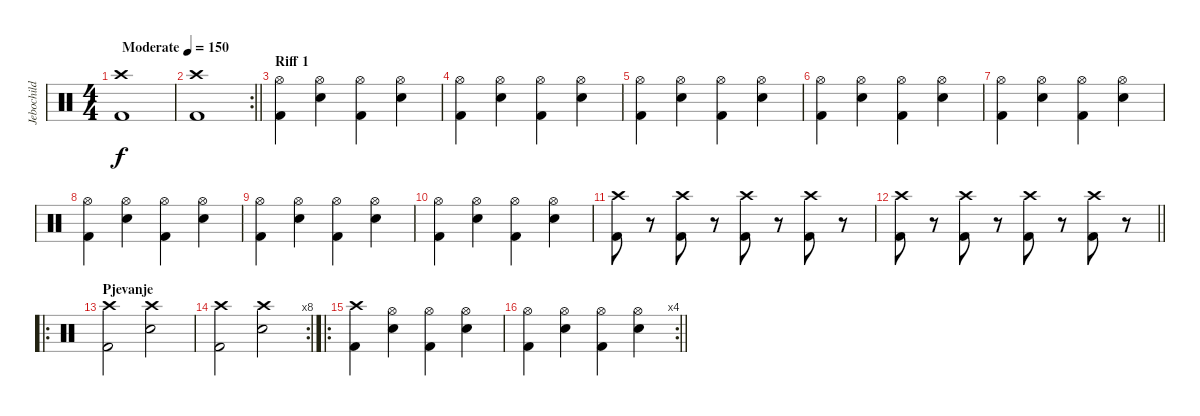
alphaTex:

\track ("Jebochild - Dragan" "Jebochild ") {instrument percussion}
\staff {score}
\articulation defaults
\ts (4 4)
\tempo (150 "Moderate")
\clef neutral
\ks c
("Crash high (hit)" "Kick (hit) 2").1{dy f} |
\rc 2
\barLineRight lightlight
("Crash high (hit)" "Kick (hit) 2").1 |
\section ("" "Riff 1")
("Hi-Hat (open)" "Kick (hit) 2").4 ("Hi-Hat (open)" "Electric Snare (hit)").4 ("Hi-Hat (open)" "Kick (hit) 2").4 ("Hi-Hat (open)" "Electric Snare (hit)").4 |
("Hi-Hat (open)" "Kick (hit) 2").4 ("Hi-Hat (open)" "Electric Snare (hit)").4 ("Hi-Hat (open)" "Kick (hit) 2").4 ("Hi-Hat (open)" "Electric Snare (hit)").4 |
("Hi-Hat (open)" "Kick (hit) 2").4 ("Hi-Hat (open)" "Electric Snare (hit)").4 ("Hi-Hat (open)" "Kick (hit) 2").4 ("Hi-Hat (open)" "Electric Snare (hit)").4 |
("Hi-Hat (open)" "Kick (hit) 2").4 ("Hi-Hat (open)" "Electric Snare (hit)").4 ("Hi-Hat (open)" "Kick (hit) 2").4 ("Hi-Hat (open)" "Electric Snare (hit)").4 |
("Hi-Hat (open)" "Kick (hit) 2").4 ("Hi-Hat (open)" "Electric Snare (hit)").4 ("Hi-Hat (open)" "Kick (hit) 2").4 ("Hi-Hat (open)" "Electric Snare (hit)").4 |
("Hi-Hat (open)" "Kick (hit) 2").4 ("Hi-Hat (open)" "Electric Snare (hit)").4 ("Hi-Hat (open)" "Kick (hit) 2").4 ("Hi-Hat (open)" "Electric Snare (hit)").4 |
("Hi-Hat (open)" "Kick (hit) 2").4 ("Hi-Hat (open)" "Electric Snare (hit)").4 ("Hi-Hat (open)" "Kick (hit) 2").4 ("Hi-Hat (open)" "Electric Snare (hit)").4 |
("Hi-Hat (open)" "Kick (hit) 2").4 ("Hi-Hat (open)" "Electric Snare (hit)").4 ("Hi-Hat (open)" "Kick (hit) 2").4 ("Hi-Hat (open)" "Electric Snare (hit)").4 |
("Crash high (hit)" "Kick (hit) 2").8 r.8 ("Crash high (hit)" "Kick (hit) 2").8 r.8 ("Crash high (hit)" "Kick (hit) 2").8 r.8 ("Crash high (hit)" "Kick (hit) 2").8 r.8 |
\barLineRight lightlight
("Crash high (hit)" "Kick (hit) 2").8 r.8 ("Crash high (hit)" "Kick (hit) 2").8 r.8 ("Crash high (hit)" "Kick (hit) 2").8 r.8 ("Crash high (hit)" "Kick (hit) 2").8 r.8 |
\ro
\section ("" "Pjevanje")
("Crash high (hit)" "Kick (hit) 2").2 ("Crash high (hit)" "Electric Snare (hit)").2 |
\rc 8
("Crash high (hit)" "Kick (hit) 2").2 ("Crash high (hit)" "Electric Snare (hit)").2 |
\ro
("Crash high (hit)" "Kick (hit) 2").4 ("Hi-Hat (open)" "Electric Snare (hit)").4 ("Hi-Hat (open)" "Kick (hit) 2").4 ("Hi-Hat (open)" "Electric Snare (hit)").4 |
\rc 4
\barLineRight lightlight
("Hi-Hat (open)" "Kick (hit) 2").4 ("Hi-Hat (open)" "Electric Snare (hit)").4 ("Hi-Hat (open)" "Kick (hit) 2").4 ("Hi-Hat (open)" "Electric Snare (hit)").4
